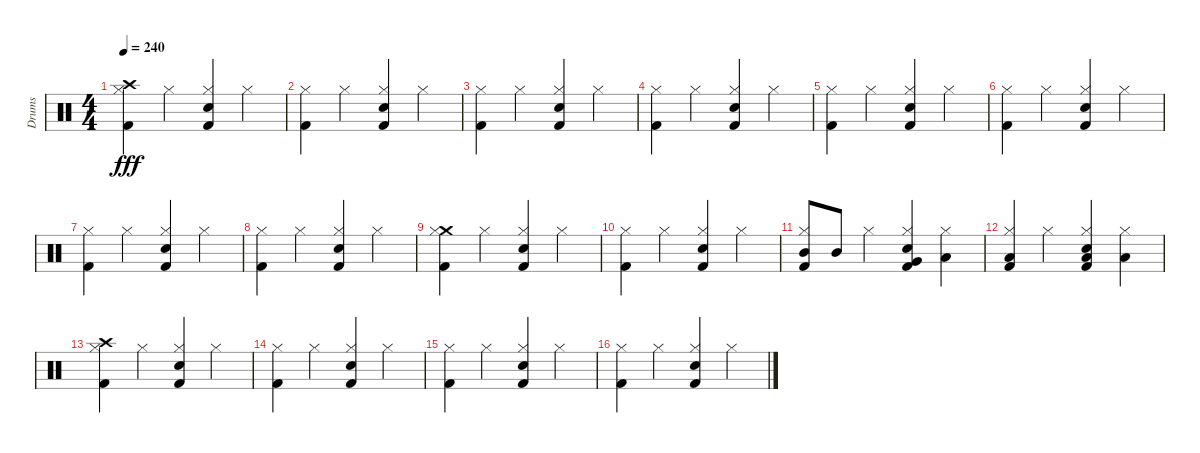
\track ("Drums" "Drums") {instrument percussion}
\staff {score}
\articulation defaults
\ts (4 4)
\tempo 240
\clef neutral
\ks c
("Crash high (hit)" "Kick (hit) 2" "Hi-Hat (closed)").4{dy fff} "Hi-Hat (closed)".4 ("Kick (hit) 2" "Snare (hit) 2" "Hi-Hat (closed)").4 "Hi-Hat (closed)".4 |
("Kick (hit) 2" "Hi-Hat (closed)").4 "Hi-Hat (closed)".4 ("Snare (hit) 2" "Kick (hit) 2" "Hi-Hat (closed)").4 "Hi-Hat (closed)".4 |
("Kick (hit) 2" "Hi-Hat (closed)").4 "Hi-Hat (closed)".4 ("Snare (hit) 2" "Hi-Hat (closed)" "Kick (hit) 2").4 "Hi-Hat (closed)".4 |
("Kick (hit) 2" "Hi-Hat (closed)").4 "Hi-Hat (closed)".4 ("Snare (hit) 2" "Kick (hit) 2" "Hi-Hat (closed)").4 "Hi-Hat (closed)".4 |
("Kick (hit) 2" "Hi-Hat (closed)").4 "Hi-Hat (closed)".4 ("Kick (hit) 2" "Snare (hit) 2" "Hi-Hat (closed)").4 "Hi-Hat (closed)".4 |
("Kick (hit) 2" "Hi-Hat (closed)").4 "Hi-Hat (closed)".4 ("Hi-Hat (closed)" "Snare (hit) 2" "Kick (hit) 2").4 "Hi-Hat (closed)".4 |
("Kick (hit) 2" "Hi-Hat (closed)").4 "Hi-Hat (closed)".4 ("Kick (hit) 2" "Hi-Hat (closed)" "Snare (hit) 2").4 "Hi-Hat (closed)".4 |
("Kick (hit) 2" "Hi-Hat (closed)").4 "Hi-Hat (closed)".4 ("Snare (hit) 2" "Kick (hit) 2" "Hi-Hat (closed)").4 "Hi-Hat (closed)".4 |
("Crash medium (hit)" "Hi-Hat (closed)" "Kick (hit) 2").4 "Hi-Hat (closed)".4 ("Kick (hit) 2" "Snare (hit) 2" "Hi-Hat (closed)").4 "Hi-Hat (closed)".4 |
("Hi-Hat (closed)" "Kick (hit) 2").4 "Hi-Hat (closed)".4 ("Snare (hit) 2" "Kick (hit) 2" "Hi-Hat (closed)").4 "Hi-Hat (closed)".4 |
("Mid Tom (hit)" "Hi-Hat (closed)" "Kick (hit) 2").8 "Mid Tom (hit)".8 "Hi-Hat (closed)".4 ("Very Low Tom (hit)" "Snare (hit) 2" "Hi-Hat (closed)" "Kick (hit) 2").4 ("Low Tom (hit)" "Hi-Hat (closed)").4 |
("Low Floor Tom (hit)" "Hi-Hat (closed)" "Kick (hit) 2").4 "Hi-Hat (closed)".4 ("Low Floor Tom (hit)" "Snare (hit) 2" "Kick (hit) 2" "Hi-Hat (closed)").4 ("Low Floor Tom (hit)" "Hi-Hat (closed)").4 |
("Crash high (hit)" "Hi-Hat (closed)" "Kick (hit) 2").4 "Hi-Hat (closed)".4 ("Kick (hit) 2" "Snare (hit) 2" "Hi-Hat (closed)").4 "Hi-Hat (closed)".4 |
("Hi-Hat (closed)" "Kick (hit) 2").4 "Hi-Hat (closed)".4 ("Hi-Hat (closed)" "Snare (hit) 2" "Kick (hit) 2").4 "Hi-Hat (closed)".4 |
("Hi-Hat (closed)" "Kick (hit) 2").4 "Hi-Hat (closed)".4 ("Kick (hit) 2" "Hi-Hat (closed)" "Snare (hit) 2").4 "Hi-Hat (closed)".4 |
("Hi-Hat (closed)" "Kick (hit) 2").4 "Hi-Hat (closed)".4 ("Snare (hit) 2" "Kick (hit) 2" "Hi-Hat (closed)").4 "Hi-Hat (closed)".4
